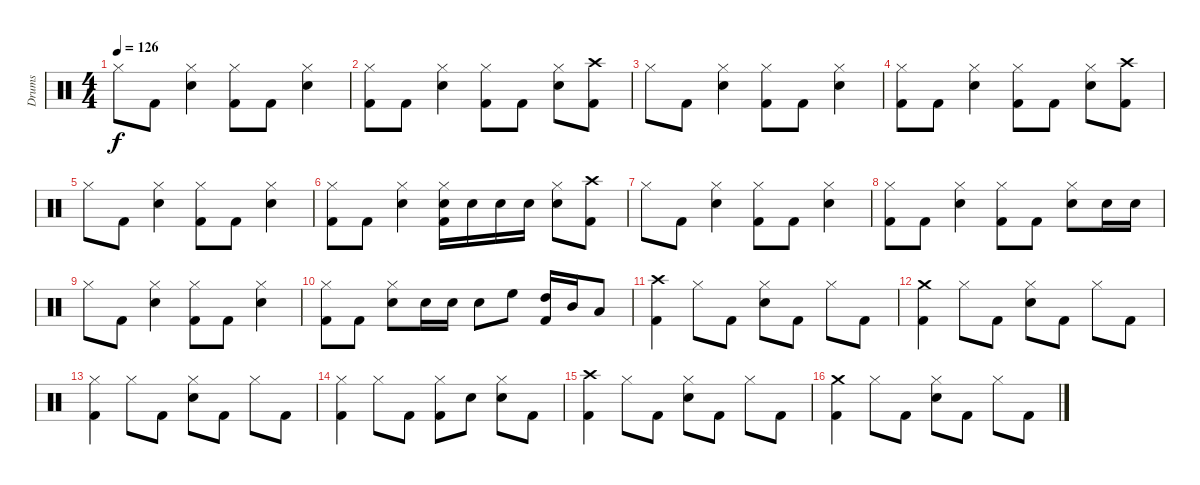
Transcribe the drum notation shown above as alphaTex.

\track ("Drums" "Drums") {instrument percussion}
\staff {score}
\articulation defaults
\ts (4 4)
\tempo 126
\clef neutral
\ks c "Hi-Hat (closed)".8{dy f} "Kick (hit) 2".8
("Hi-Hat (closed)" "Snare (hit) 2").4 ("Hi-Hat (closed)" "Kick (hit) 2").8 "Kick (hit) 2".8 ("Hi-Hat (closed)" "Snare (hit) 2").4 |
("Hi-Hat (closed)" "Kick (hit) 2").8 "Kick (hit) 2".8 ("Hi-Hat (closed)" "Snare (hit) 2").4 ("Hi-Hat (closed)" "Kick (hit) 2").8 "Kick (hit) 2".8 ("Hi-Hat (closed)" "Snare (hit) 2").8 ("Crash high (hit)" "Kick (hit) 2").8 |
"Hi-Hat (closed)".8 "Kick (hit) 2".8 ("Hi-Hat (closed)" "Snare (hit) 2").4 ("Hi-Hat (closed)" "Kick (hit) 2").8 "Kick (hit) 2".8 ("Hi-Hat (closed)" "Snare (hit) 2").4 |
("Hi-Hat (closed)" "Kick (hit) 2").8 "Kick (hit) 2".8 ("Hi-Hat (closed)" "Snare (hit) 2").4 ("Hi-Hat (closed)" "Kick (hit) 2").8 "Kick (hit) 2".8 ("Hi-Hat (closed)" "Snare (hit) 2").8 ("Crash high (hit)" "Kick (hit) 2").8 |
"Hi-Hat (closed)".8 "Kick (hit) 2".8 ("Hi-Hat (closed)" "Snare (hit) 2").4 ("Hi-Hat (closed)" "Kick (hit) 2").8 "Kick (hit) 2".8 ("Hi-Hat (closed)" "Snare (hit) 2").4 |
("Hi-Hat (closed)" "Kick (hit) 2").8 "Kick (hit) 2".8 ("Hi-Hat (closed)" "Snare (hit) 2").4 ("Hi-Hat (closed)" "Snare (hit) 2" "Kick (hit) 2").16 "Snare (hit) 2".16 "Snare (hit) 2".16 "Snare (hit) 2".16 ("Hi-Hat (closed)" "Snare (hit) 2").8 ("Crash high (hit)" "Kick (hit) 2").8 |
"Hi-Hat (closed)".8 "Kick (hit) 2".8 ("Hi-Hat (closed)" "Snare (hit) 2").4 ("Hi-Hat (closed)" "Kick (hit) 2").8 "Kick (hit) 2".8 ("Hi-Hat (closed)" "Snare (hit) 2").4 |
("Hi-Hat (closed)" "Kick (hit) 2").8 "Kick (hit) 2".8 ("Hi-Hat (closed)" "Snare (hit) 2").4 ("Hi-Hat (closed)" "Kick (hit) 2").8 "Kick (hit) 2".8 ("Hi-Hat (closed)" "Snare (hit) 2").8 "Snare (hit) 2".16 "Snare (hit) 2".16 |
"Hi-Hat (closed)".8 "Kick (hit) 2".8 ("Hi-Hat (closed)" "Snare (hit) 2").4 ("Hi-Hat (closed)" "Kick (hit) 2").8 "Kick (hit) 2".8 ("Hi-Hat (closed)" "Snare (hit) 2").4 |
("Hi-Hat (closed)" "Kick (hit) 2").8 "Kick (hit) 2".8 ("Hi-Hat (closed)" "Snare (hit) 2").8 "Snare (hit) 2".16 "Snare (hit) 2".16 "Snare (hit) 2".8 "High Floor Tom (hit)".8 ("High Tom (hit)" "Kick (hit) 2").16 "Mid Tom (hit)".16 "Low Tom (hit)".8 |
("Crash high (hit)" "Kick (hit) 2").4 "Hi-Hat (closed)".8 "Kick (hit) 2".8 ("Hi-Hat (closed)" "Snare (hit) 2").8 "Kick (hit) 2".8 "Hi-Hat (closed)".8 "Kick (hit) 2".8 |
("Crash medium (hit)" "Kick (hit) 2").4 "Hi-Hat (closed)".8 "Kick (hit) 2".8 ("Hi-Hat (closed)" "Snare (hit) 2").8 "Kick (hit) 2".8 "Hi-Hat (closed)".8 "Kick (hit) 2".8 |
("Hi-Hat (closed)" "Kick (hit) 2").4 "Hi-Hat (closed)".8 "Kick (hit) 2".8 ("Hi-Hat (closed)" "Snare (hit) 2").8 "Kick (hit) 2".8 "Hi-Hat (closed)".8 "Kick (hit) 2".8 |
("Hi-Hat (closed)" "Kick (hit) 2").4 "Hi-Hat (closed)".8 "Kick (hit) 2".8 ("Hi-Hat (closed)" "Kick (hit) 2").8 "Snare (hit) 2".8 ("Hi-Hat (closed)" "Snare (hit) 2").8 "Kick (hit) 2".8 |
("Crash high (hit)" "Kick (hit) 2").4 "Hi-Hat (closed)".8 "Kick (hit) 2".8 ("Hi-Hat (closed)" "Snare (hit) 2").8 "Kick (hit) 2".8 "Hi-Hat (closed)".8 "Kick (hit) 2".8 |
("Crash medium (hit)" "Kick (hit) 2").4 "Hi-Hat (closed)".8 "Kick (hit) 2".8 ("Hi-Hat (closed)" "Snare (hit) 2").8 "Kick (hit) 2".8 "Hi-Hat (closed)".8 "Kick (hit) 2".8
